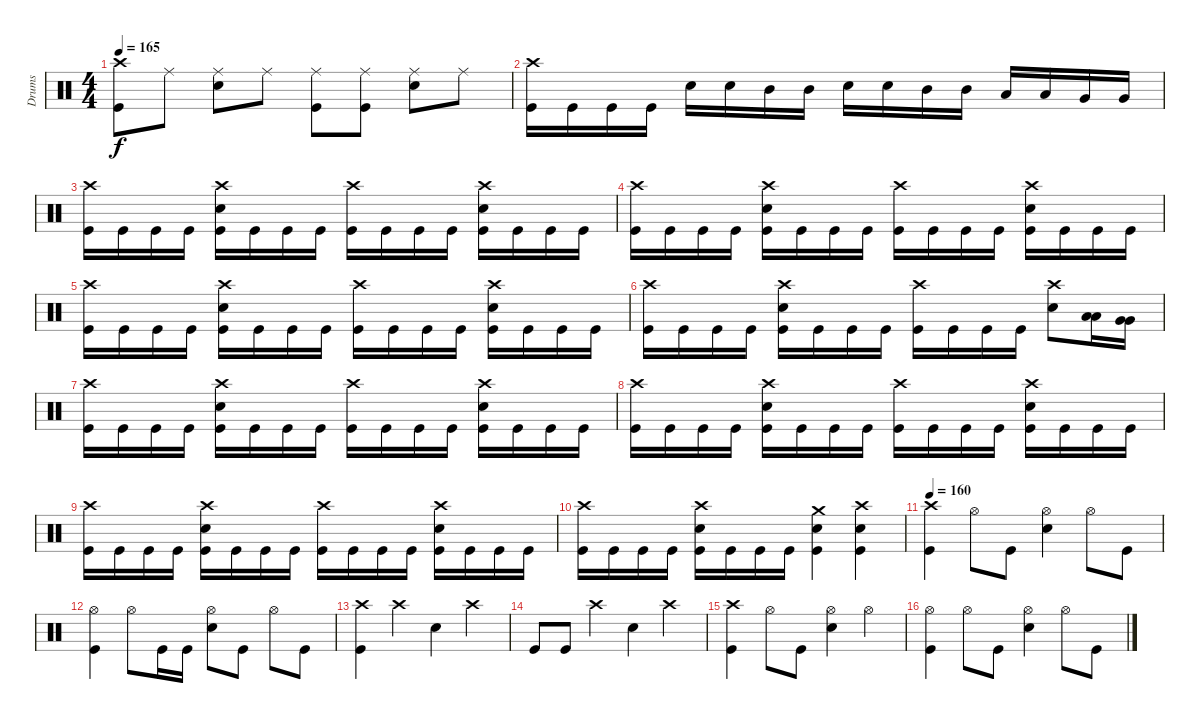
\track ("Drums" "Drums") {instrument percussion}
\staff {score}
\articulation defaults
\ts (4 4)
\tempo 165
\clef neutral
\ks c
("Crash high (hit)" "Kick (hit)").8{dy f} "Ride (middle)".8 ("Ride (middle)" "Electric Snare (hit)").8 "Ride (middle)".8 ("Ride (middle)" "Kick (hit)").8 ("Ride (middle)" "Kick (hit)").8 ("Ride (middle)" "Electric Snare (hit)").8 "Ride (middle)".8 |
("Crash high (hit)" "Kick (hit)").16 "Kick (hit)".16 "Kick (hit)".16 "Kick (hit)".16 "Electric Snare (hit)".16 "Electric Snare (hit)".16 "Mid Tom (hit)".16 "Mid Tom (hit)".16 "Electric Snare (hit)".16 "Electric Snare (hit)".16 "Mid Tom (hit)".16 "Mid Tom (hit)".16 "Low Tom (hit)".16 "Low Tom (hit)".16 "Very Low Tom (hit)".16 "Very Low Tom (hit)".16 |
("Crash high (hit)" "Kick (hit)").16 "Kick (hit)".16 "Kick (hit)".16 "Kick (hit)".16 ("Crash high (hit)" "Electric Snare (hit)" "Kick (hit)").16 "Kick (hit)".16 "Kick (hit)".16 "Kick (hit)".16 ("Crash high (hit)" "Kick (hit)").16 "Kick (hit)".16 "Kick (hit)".16 "Kick (hit)".16 ("Crash high (hit)" "Electric Snare (hit)" "Kick (hit)").16 "Kick (hit)".16 "Kick (hit)".16 "Kick (hit)".16 |
("Crash high (hit)" "Kick (hit)").16 "Kick (hit)".16 "Kick (hit)".16 "Kick (hit)".16 ("Crash high (hit)" "Electric Snare (hit)" "Kick (hit)").16 "Kick (hit)".16 "Kick (hit)".16 "Kick (hit)".16 ("Crash high (hit)" "Kick (hit)").16 "Kick (hit)".16 "Kick (hit)".16 "Kick (hit)".16 ("Crash high (hit)" "Electric Snare (hit)" "Kick (hit)").16 "Kick (hit)".16 "Kick (hit)".16 "Kick (hit)".16 |
("Crash high (hit)" "Kick (hit)").16 "Kick (hit)".16 "Kick (hit)".16 "Kick (hit)".16 ("Crash high (hit)" "Electric Snare (hit)" "Kick (hit)").16 "Kick (hit)".16 "Kick (hit)".16 "Kick (hit)".16 ("Crash high (hit)" "Kick (hit)").16 "Kick (hit)".16 "Kick (hit)".16 "Kick (hit)".16 ("Crash high (hit)" "Electric Snare (hit)" "Kick (hit)").16 "Kick (hit)".16 "Kick (hit)".16 "Kick (hit)".16 |
("Crash high (hit)" "Kick (hit)").16 "Kick (hit)".16 "Kick (hit)".16 "Kick (hit)".16 ("Crash high (hit)" "Electric Snare (hit)" "Kick (hit)").16 "Kick (hit)".16 "Kick (hit)".16 "Kick (hit)".16 ("Crash high (hit)" "Kick (hit)").16 "Kick (hit)".16 "Kick (hit)".16 "Kick (hit)".16 ("Crash high (hit)" "Electric Snare (hit)").8 ("Low Tom (hit)" "Low Tom (hit)").16 ("Very Low Tom (hit)" "Very Low Tom (hit)").16 |
("Crash high (hit)" "Kick (hit)").16 "Kick (hit)".16 "Kick (hit)".16 "Kick (hit)".16 ("Crash high (hit)" "Electric Snare (hit)" "Kick (hit)").16 "Kick (hit)".16 "Kick (hit)".16 "Kick (hit)".16 ("Crash high (hit)" "Kick (hit)").16 "Kick (hit)".16 "Kick (hit)".16 "Kick (hit)".16 ("Crash high (hit)" "Electric Snare (hit)" "Kick (hit)").16 "Kick (hit)".16 "Kick (hit)".16 "Kick (hit)".16 |
("Crash high (hit)" "Kick (hit)").16 "Kick (hit)".16 "Kick (hit)".16 "Kick (hit)".16 ("Crash high (hit)" "Electric Snare (hit)" "Kick (hit)").16 "Kick (hit)".16 "Kick (hit)".16 "Kick (hit)".16 ("Crash high (hit)" "Kick (hit)").16 "Kick (hit)".16 "Kick (hit)".16 "Kick (hit)".16 ("Crash high (hit)" "Electric Snare (hit)" "Kick (hit)").16 "Kick (hit)".16 "Kick (hit)".16 "Kick (hit)".16 |
("Crash high (hit)" "Kick (hit)").16 "Kick (hit)".16 "Kick (hit)".16 "Kick (hit)".16 ("Crash high (hit)" "Electric Snare (hit)" "Kick (hit)").16 "Kick (hit)".16 "Kick (hit)".16 "Kick (hit)".16 ("Crash high (hit)" "Kick (hit)").16 "Kick (hit)".16 "Kick (hit)".16 "Kick (hit)".16 ("Crash high (hit)" "Electric Snare (hit)" "Kick (hit)").16 "Kick (hit)".16 "Kick (hit)".16 "Kick (hit)".16 |
("Crash high (hit)" "Kick (hit)").16 "Kick (hit)".16 "Kick (hit)".16 "Kick (hit)".16 ("Crash high (hit)" "Electric Snare (hit)" "Kick (hit)").16 "Kick (hit)".16 "Kick (hit)".16 "Kick (hit)".16 ("Crash medium (hit)" "Electric Snare (hit)" "Kick (hit)").4 ("Crash high (hit)" "Electric Snare (hit)" "Kick (hit)").4 |
\tempo 160
("Crash high (hit)" "Kick (hit)").4 "Hi-Hat (open)".8 "Kick (hit)".8 ("Hi-Hat (open)" "Electric Snare (hit)").4 "Hi-Hat (open)".8 "Kick (hit)".8 |
("Hi-Hat (open)" "Kick (hit)").4 "Hi-Hat (open)".8 "Kick (hit)".16 "Kick (hit)".16 ("Hi-Hat (open)" "Electric Snare (hit)").8 "Kick (hit)".8 "Hi-Hat (open)".8 "Kick (hit)".8 |
("Crash high (hit)" "Kick (hit)").4 "Crash high (hit)".4 "Electric Snare (hit)".4 "Crash high (hit)".4 |
"Kick (hit)".8 "Kick (hit)".8 "Crash high (hit)".4 "Electric Snare (hit)".4 "Crash high (hit)".4 |
("Crash high (hit)" "Kick (hit)").4 "Hi-Hat (open)".8 "Kick (hit)".8 ("Hi-Hat (open)" "Electric Snare (hit)").4 "Hi-Hat (open)".4 |
("Hi-Hat (open)" "Kick (hit)").4 "Hi-Hat (open)".8 "Kick (hit)".8 ("Hi-Hat (open)" "Electric Snare (hit)").4 "Hi-Hat (open)".8 "Kick (hit)".8
